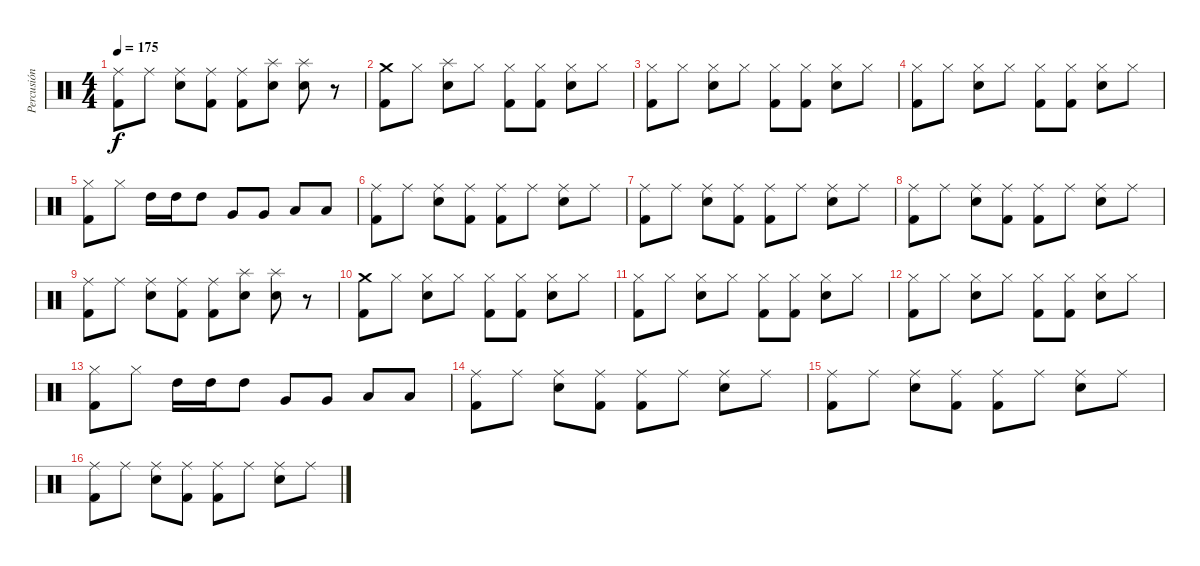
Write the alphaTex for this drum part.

\track ("Percusión" "Percusión") {instrument percussion}
\staff {score}
\articulation defaults
\ts (4 4)
\tempo 175
\clef neutral
\ks c
("Ride (middle)" "Kick (hit) 2").8{dy f} "Ride (middle)".8 ("Ride (middle)" "Electric Snare (hit)").8 ("Ride (middle)" "Kick (hit) 2").8 ("Kick (hit) 2" "Ride (middle)").8 ("Splash (hit)" "Electric Snare (hit)").8 ("Splash (hit)" "Electric Snare (hit)").8 r.8 |
("Crash medium (hit)" "Kick (hit) 2").8 "Hi-Hat (closed)".8 ("Splash (hit)" "Electric Snare (hit)").8 "Hi-Hat (closed)".8 ("Kick (hit) 2" "Hi-Hat (closed)").8 ("Kick (hit) 2" "Hi-Hat (closed)").8 ("Electric Snare (hit)" "Hi-Hat (closed)").8 "Hi-Hat (closed)".8 |
("Hi-Hat (closed)" "Kick (hit) 2").8 "Hi-Hat (closed)".8 ("Hi-Hat (closed)" "Electric Snare (hit)").8 "Hi-Hat (closed)".8 ("Kick (hit) 2" "Hi-Hat (closed)").8 ("Kick (hit) 2" "Hi-Hat (closed)").8 ("Electric Snare (hit)" "Hi-Hat (closed)").8 "Hi-Hat (closed)".8 |
("Hi-Hat (closed)" "Kick (hit) 2").8 "Hi-Hat (closed)".8 ("Hi-Hat (closed)" "Electric Snare (hit)").8 "Hi-Hat (closed)".8 ("Kick (hit) 2" "Hi-Hat (closed)").8 ("Kick (hit) 2" "Hi-Hat (closed)").8 ("Electric Snare (hit)" "Hi-Hat (closed)").8 "Hi-Hat (closed)".8 |
("Hi-Hat (closed)" "Kick (hit) 2").8 "Hi-Hat (closed)".8 "High Tom (hit)".16 "High Tom (hit)".16 "High Tom (hit)".8 "Very Low Tom (hit)".8 "Very Low Tom (hit)".8 "Low Floor Tom (hit)".8 "Low Floor Tom (hit)".8 |
("Ride (middle)" "Kick (hit) 2").8 "Ride (middle)".8 ("Ride (middle)" "Electric Snare (hit)").8 ("Ride (middle)" "Kick (hit) 2").8 ("Kick (hit) 2" "Ride (middle)").8 "Ride (middle)".8 ("Electric Snare (hit)" "Ride (middle)").8 "Ride (middle)".8 |
("Ride (middle)" "Kick (hit) 2").8 "Ride (middle)".8 ("Ride (middle)" "Electric Snare (hit)").8 ("Ride (middle)" "Kick (hit) 2").8 ("Kick (hit) 2" "Ride (middle)").8 "Ride (middle)".8 ("Electric Snare (hit)" "Ride (middle)").8 "Ride (middle)".8 |
("Ride (middle)" "Kick (hit) 2").8 "Ride (middle)".8 ("Ride (middle)" "Electric Snare (hit)").8 ("Ride (middle)" "Kick (hit) 2").8 ("Kick (hit) 2" "Ride (middle)").8 "Ride (middle)".8 ("Electric Snare (hit)" "Ride (middle)").8 "Ride (middle)".8 |
("Ride (middle)" "Kick (hit) 2").8 "Ride (middle)".8 ("Ride (middle)" "Electric Snare (hit)").8 ("Ride (middle)" "Kick (hit) 2").8 ("Kick (hit) 2" "Ride (middle)").8 ("Electric Snare (hit)" "Splash (hit)").8 ("Splash (hit)" "Electric Snare (hit)").8 r.8 |
("Crash medium (hit)" "Kick (hit) 2").8 "Hi-Hat (closed)".8 ("Hi-Hat (closed)" "Electric Snare (hit)").8 "Hi-Hat (closed)".8 ("Kick (hit) 2" "Hi-Hat (closed)").8 ("Kick (hit) 2" "Hi-Hat (closed)").8 ("Electric Snare (hit)" "Hi-Hat (closed)").8 "Hi-Hat (closed)".8 |
("Hi-Hat (closed)" "Kick (hit) 2").8 "Hi-Hat (closed)".8 ("Hi-Hat (closed)" "Electric Snare (hit)").8 "Hi-Hat (closed)".8 ("Kick (hit) 2" "Hi-Hat (closed)").8 ("Kick (hit) 2" "Hi-Hat (closed)").8 ("Electric Snare (hit)" "Hi-Hat (closed)").8 "Hi-Hat (closed)".8 |
("Hi-Hat (closed)" "Kick (hit) 2").8 "Hi-Hat (closed)".8 ("Hi-Hat (closed)" "Electric Snare (hit)").8 "Hi-Hat (closed)".8 ("Kick (hit) 2" "Hi-Hat (closed)").8 ("Kick (hit) 2" "Hi-Hat (closed)").8 ("Electric Snare (hit)" "Hi-Hat (closed)").8 "Hi-Hat (closed)".8 |
("Hi-Hat (closed)" "Kick (hit) 2").8 "Hi-Hat (closed)".8 "High Tom (hit)".16 "High Tom (hit)".16 "High Tom (hit)".8 "Very Low Tom (hit)".8 "Very Low Tom (hit)".8 "Low Floor Tom (hit)".8 "Low Floor Tom (hit)".8 |
("Ride (middle)" "Kick (hit) 2").8 "Ride (middle)".8 ("Ride (middle)" "Electric Snare (hit)").8 ("Ride (middle)" "Kick (hit) 2").8 ("Kick (hit) 2" "Ride (middle)").8 "Ride (middle)".8 ("Electric Snare (hit)" "Ride (middle)").8 "Ride (middle)".8 |
("Ride (middle)" "Kick (hit) 2").8 "Ride (middle)".8 ("Ride (middle)" "Electric Snare (hit)").8 ("Ride (middle)" "Kick (hit) 2").8 ("Kick (hit) 2" "Ride (middle)").8 "Ride (middle)".8 ("Electric Snare (hit)" "Ride (middle)").8 "Ride (middle)".8 |
("Ride (middle)" "Kick (hit) 2").8 "Ride (middle)".8 ("Ride (middle)" "Electric Snare (hit)").8 ("Ride (middle)" "Kick (hit) 2").8 ("Kick (hit) 2" "Ride (middle)").8 "Ride (middle)".8 ("Electric Snare (hit)" "Ride (middle)").8 "Ride (middle)".8
